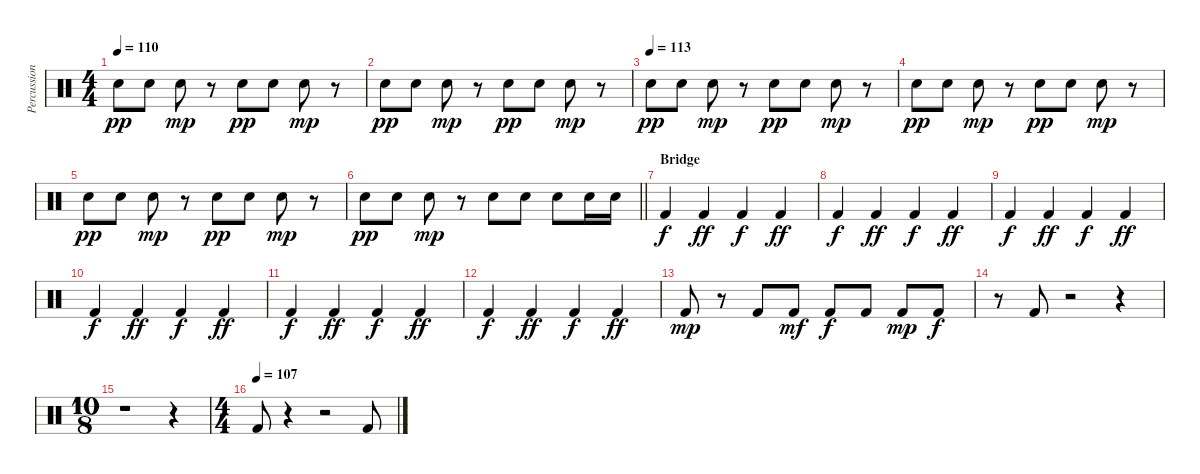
\track ("Percussion" "Percussion") {instrument percussion}
\staff {score}
\articulation defaults
\ts (4 4)
\tempo 110
\clef neutral
\ks c "Hand Clap (hit)".8{dy pp} "Hand Clap (hit)".8 "Hand Clap (hit)".8{dy mp}
r.8 "Hand Clap (hit)".8{dy pp} "Hand Clap (hit)".8 "Hand Clap (hit)".8{dy mp} r.8 |
"Hand Clap (hit)".8{dy pp} "Hand Clap (hit)".8 "Hand Clap (hit)".8{dy mp} r.8 "Hand Clap (hit)".8{dy pp} "Hand Clap (hit)".8 "Hand Clap (hit)".8{dy mp} r.8 |
\tempo (113)
"Hand Clap (hit)".8{dy pp} "Hand Clap (hit)".8 "Hand Clap (hit)".8{dy mp} r.8 "Hand Clap (hit)".8{dy pp} "Hand Clap (hit)".8 "Hand Clap (hit)".8{dy mp} r.8 |
"Hand Clap (hit)".8{dy pp} "Hand Clap (hit)".8 "Hand Clap (hit)".8{dy mp} r.8 "Hand Clap (hit)".8{dy pp} "Hand Clap (hit)".8 "Hand Clap (hit)".8{dy mp} r.8 |
"Hand Clap (hit)".8{dy pp} "Hand Clap (hit)".8 "Hand Clap (hit)".8{dy mp} r.8 "Hand Clap (hit)".8{dy pp} "Hand Clap (hit)".8 "Hand Clap (hit)".8{dy mp} r.8 |
\barLineRight lightlight "Hand Clap (hit)".8{dy pp} "Hand Clap (hit)".8 "Hand Clap (hit)".8{dy mp}
r.8 "Hand Clap (hit)".8 "Hand Clap (hit)".8 "Hand Clap (hit)".8 "Hand Clap (hit)".16 "Hand Clap (hit)".16 |
\section ("" "Bridge")
"Kick (hit) 2".4{dy f} "Kick (hit) 2".4{dy ff} "Kick (hit) 2".4{dy f} "Kick (hit) 2".4{dy ff} |
"Kick (hit) 2".4{dy f} "Kick (hit) 2".4{dy ff} "Kick (hit) 2".4{dy f} "Kick (hit) 2".4{dy ff} |
"Kick (hit) 2".4{dy f} "Kick (hit) 2".4{dy ff} "Kick (hit) 2".4{dy f} "Kick (hit) 2".4{dy ff} |
"Kick (hit) 2".4{dy f} "Kick (hit) 2".4{dy ff} "Kick (hit) 2".4{dy f} "Kick (hit) 2".4{dy ff} |
"Kick (hit) 2".4{dy f} "Kick (hit) 2".4{dy ff} "Kick (hit) 2".4{dy f} "Kick (hit) 2".4{dy ff} |
"Kick (hit) 2".4{dy f} "Kick (hit) 2".4{dy ff} "Kick (hit) 2".4{dy f} "Kick (hit) 2".4{dy ff} |
"Kick (hit) 2".8{dy mp} r.8 "Kick (hit) 2".8 "Kick (hit) 2".8{dy mf} "Kick (hit) 2".8{dy f} "Kick (hit) 2".8 "Kick (hit) 2".8{dy mp} "Kick (hit) 2".8{dy f} |
r.8 "Kick (hit) 2".8 r.2 r.4 |
\ts (10 8)
r.1 r.4 |
\ts (4 4)
\tempo (107)
"Kick (hit) 2".8 r.4 r.2 "Kick (hit) 2".8
